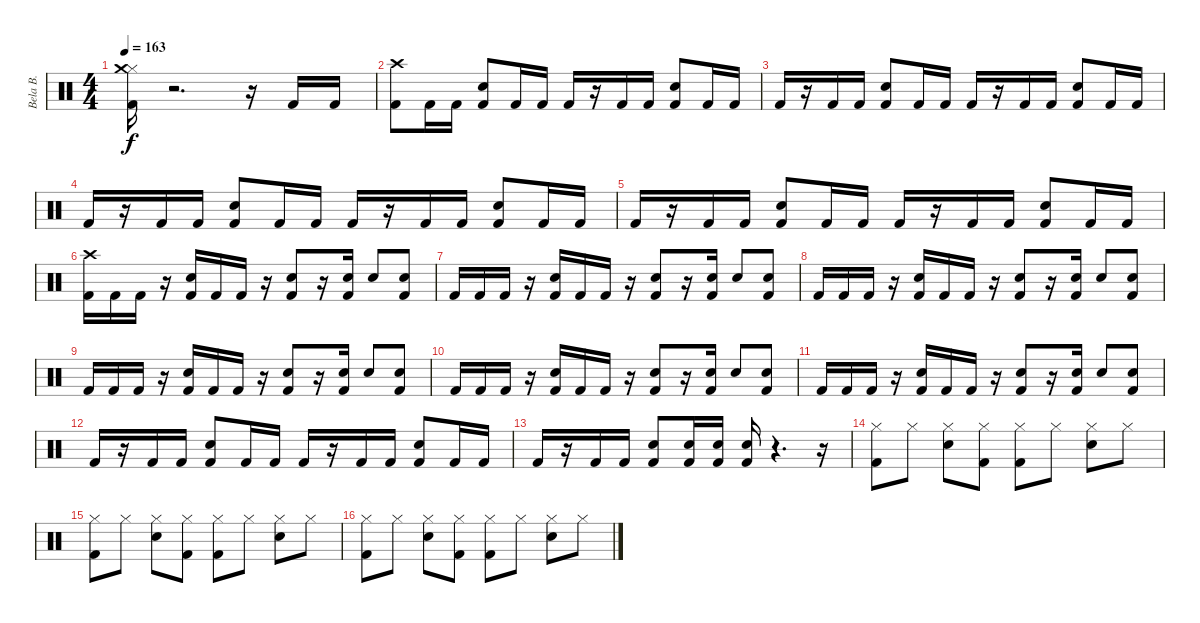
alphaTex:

\track ("Bela B." "Bela B.") {instrument percussion}
\staff {score}
\articulation defaults
\ts (4 4)
\tempo 163
\clef neutral
\ks c
("Hi-Hat (closed)" "Kick (hit) 2" "Crash medium (hit)").16{dy f} r.2{d} r.16 "Kick (hit) 2".16 "Kick (hit) 2".16 |
("Crash high (hit)" "Kick (hit) 2").8 "Kick (hit) 2".16 "Kick (hit) 2".16 ("Snare (hit) 2" "Kick (hit) 2").8 "Kick (hit) 2".16 "Kick (hit) 2".16 "Kick (hit) 2".16 r.16 "Kick (hit) 2".16 "Kick (hit) 2".16 ("Snare (hit) 2" "Kick (hit) 2").8 "Kick (hit) 2".16 "Kick (hit) 2".16 |
"Kick (hit) 2".16 r.16 "Kick (hit) 2".16 "Kick (hit) 2".16 ("Kick (hit) 2" "Snare (hit) 2").8 "Kick (hit) 2".16 "Kick (hit) 2".16 "Kick (hit) 2".16 r.16 "Kick (hit) 2".16 "Kick (hit) 2".16 ("Kick (hit) 2" "Snare (hit) 2").8 "Kick (hit) 2".16 "Kick (hit) 2".16 |
"Kick (hit) 2".16 r.16 "Kick (hit) 2".16 "Kick (hit) 2".16 ("Kick (hit) 2" "Snare (hit) 2").8 "Kick (hit) 2".16 "Kick (hit) 2".16 "Kick (hit) 2".16 r.16 "Kick (hit) 2".16 "Kick (hit) 2".16 ("Snare (hit) 2" "Kick (hit) 2").8 "Kick (hit) 2".16 "Kick (hit) 2".16 |
"Kick (hit) 2".16 r.16 "Kick (hit) 2".16 "Kick (hit) 2".16 ("Kick (hit) 2" "Snare (hit) 2").8 "Kick (hit) 2".16 "Kick (hit) 2".16 "Kick (hit) 2".16 r.16 "Kick (hit) 2".16 "Kick (hit) 2".16 ("Kick (hit) 2" "Snare (hit) 2").8 "Kick (hit) 2".16 "Kick (hit) 2".16 |
("Crash high (hit)" "Kick (hit) 2").16 "Kick (hit) 2".16 "Kick (hit) 2".16 r.16 ("Kick (hit) 2" "Snare (hit) 2").16 "Kick (hit) 2".16 "Kick (hit) 2".16 r.16 ("Kick (hit) 2" "Hand Clap (hit)").8 r.16 ("Kick (hit) 2" "Hand Clap (hit)").16 "Snare (hit) 2".8 ("Hand Clap (hit)" "Kick (hit) 2").8 |
"Kick (hit) 2".16 "Kick (hit) 2".16 "Kick (hit) 2".16 r.16 ("Snare (hit) 2" "Kick (hit) 2").16 "Kick (hit) 2".16 "Kick (hit) 2".16 r.16 ("Hand Clap (hit)" "Kick (hit) 2").8 r.16 ("Hand Clap (hit)" "Kick (hit) 2").16 "Snare (hit) 2".8 ("Hand Clap (hit)" "Kick (hit) 2").8 |
"Kick (hit) 2".16 "Kick (hit) 2".16 "Kick (hit) 2".16 r.16 ("Snare (hit) 2" "Kick (hit) 2").16 "Kick (hit) 2".16 "Kick (hit) 2".16 r.16 ("Hand Clap (hit)" "Kick (hit) 2").8 r.16 ("Hand Clap (hit)" "Kick (hit) 2").16 "Snare (hit) 2".8 ("Hand Clap (hit)" "Kick (hit) 2").8 |
"Kick (hit) 2".16 "Kick (hit) 2".16 "Kick (hit) 2".16 r.16 ("Kick (hit) 2" "Snare (hit) 2").16 "Kick (hit) 2".16 "Kick (hit) 2".16 r.16 ("Kick (hit) 2" "Hand Clap (hit)").8 r.16 ("Kick (hit) 2" "Hand Clap (hit)").16 "Snare (hit) 2".8 ("Kick (hit) 2" "Hand Clap (hit)").8 |
"Kick (hit) 2".16 "Kick (hit) 2".16 "Kick (hit) 2".16 r.16 ("Kick (hit) 2" "Snare (hit) 2").16 "Kick (hit) 2".16 "Kick (hit) 2".16 r.16 ("Hand Clap (hit)" "Kick (hit) 2").8 r.16 ("Hand Clap (hit)" "Kick (hit) 2").16 "Snare (hit) 2".8 ("Kick (hit) 2" "Hand Clap (hit)").8 |
"Kick (hit) 2".16 "Kick (hit) 2".16 "Kick (hit) 2".16 r.16 ("Kick (hit) 2" "Snare (hit) 2").16 "Kick (hit) 2".16 "Kick (hit) 2".16 r.16 ("Kick (hit) 2" "Hand Clap (hit)").8 r.16 ("Hand Clap (hit)" "Kick (hit) 2").16 "Snare (hit) 2".8 ("Kick (hit) 2" "Hand Clap (hit)").8 |
"Kick (hit) 2".16 r.16 "Kick (hit) 2".16 "Kick (hit) 2".16 ("Kick (hit) 2" "Snare (hit) 2").8 "Kick (hit) 2".16 "Kick (hit) 2".16 "Kick (hit) 2".16 r.16 "Kick (hit) 2".16 "Kick (hit) 2".16 ("Snare (hit) 2" "Kick (hit) 2").8 "Kick (hit) 2".16 "Kick (hit) 2".16 |
"Kick (hit) 2".16 r.16 "Kick (hit) 2".16 "Kick (hit) 2".16 ("Snare (hit) 2" "Kick (hit) 2").8 ("Snare (hit) 2" "Kick (hit) 2").16 ("Snare (hit) 2" "Kick (hit) 2").16 ("Snare (hit) 2" "Kick (hit) 2").16 r.4{d} r.16 |
("Hi-Hat (closed)" "Kick (hit) 2").8 "Hi-Hat (closed)".8 ("Hi-Hat (closed)" "Snare (hit) 2").8 ("Hi-Hat (closed)" "Kick (hit) 2").8 ("Hi-Hat (closed)" "Kick (hit) 2").8 "Hi-Hat (closed)".8 ("Hi-Hat (closed)" "Snare (hit) 2").8 "Hi-Hat (closed)".8 |
("Kick (hit) 2" "Hi-Hat (closed)").8 "Hi-Hat (closed)".8 ("Snare (hit) 2" "Hi-Hat (closed)").8 ("Hi-Hat (closed)" "Kick (hit) 2").8 ("Kick (hit) 2" "Hi-Hat (closed)").8 "Hi-Hat (closed)".8 ("Hi-Hat (closed)" "Snare (hit) 2").8 "Hi-Hat (closed)".8 |
("Kick (hit) 2" "Hi-Hat (closed)").8 "Hi-Hat (closed)".8 ("Snare (hit) 2" "Hi-Hat (closed)").8 ("Kick (hit) 2" "Hi-Hat (closed)").8 ("Kick (hit) 2" "Hi-Hat (closed)").8 "Hi-Hat (closed)".8 ("Hi-Hat (closed)" "Snare (hit) 2").8 "Hi-Hat (closed)".8
